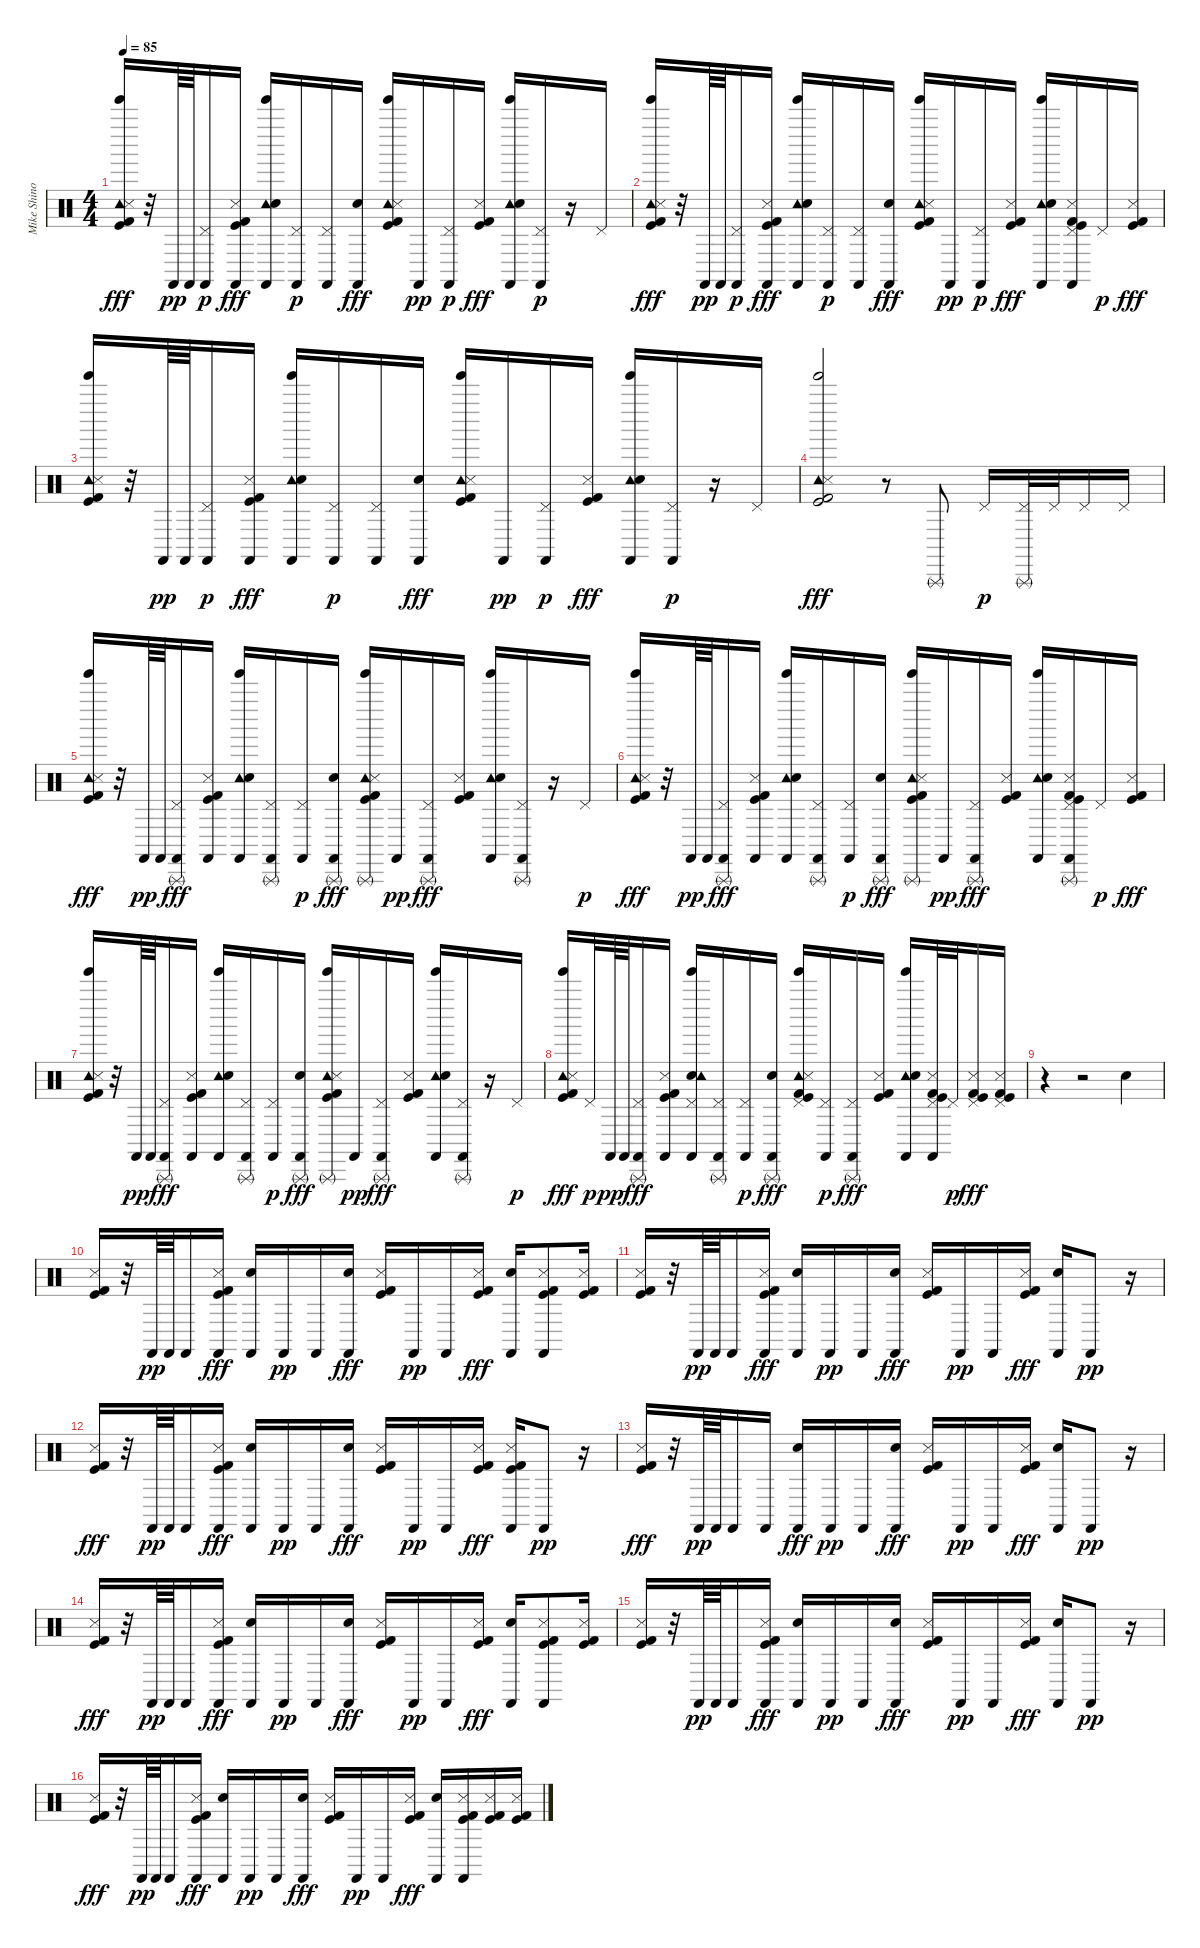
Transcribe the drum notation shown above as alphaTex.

\track ("Mike Shinoda - Percussion" "Mike Shino") {instrument percussion}
\staff {score}
\articulation defaults
\ts (4 4)
\tempo 85
\clef neutral
\ks c
("Tambourine (hit)" "Tinkle Bell (hit)" "Snare (side stick) 3" "Kick (hit)" "Kick (hit) 2").16{dy fff} r.32 "Castanets (hit)".64{dy pp} "Castanets (hit)".64 ("Castanets (hit)" "Pedal Hi-Hat (hit)").16{dy p} ("Castanets (hit)" "Snare (side stick) 3" "Kick (hit)" "Kick (hit) 2").16{dy fff} ("Castanets (hit)" "Tambourine (hit)" "Hand Clap (hit)" "Tinkle Bell (hit)").16 ("Castanets (hit)" "Pedal Hi-Hat (hit)").16{dy p} ("Castanets (hit)" "Pedal Hi-Hat (hit)").16 ("Castanets (hit)" "Hand Clap (hit)").16{dy fff} ("Tambourine (hit)" "Tinkle Bell (hit)" "Snare (side stick) 3" "Kick (hit)" "Kick (hit) 2").16 "Castanets (hit)".16{dy pp} ("Castanets (hit)" "Pedal Hi-Hat (hit)").16{dy p} ("Snare (side stick) 3" "Kick (hit)" "Kick (hit) 2").16{dy fff} ("Castanets (hit)" "Tambourine (hit)" "Hand Clap (hit)" "Tinkle Bell (hit)").16 ("Castanets (hit)" "Pedal Hi-Hat (hit)").16{dy p} r.16 "Pedal Hi-Hat (hit)".16 |
("Tambourine (hit)" "Tinkle Bell (hit)" "Snare (side stick) 3" "Kick (hit)" "Kick (hit) 2").16{dy fff} r.32 "Castanets (hit)".64{dy pp} "Castanets (hit)".64 ("Castanets (hit)" "Pedal Hi-Hat (hit)").16{dy p} ("Castanets (hit)" "Snare (side stick) 3" "Kick (hit)" "Kick (hit) 2").16{dy fff} ("Castanets (hit)" "Tambourine (hit)" "Hand Clap (hit)" "Tinkle Bell (hit)").16 ("Castanets (hit)" "Pedal Hi-Hat (hit)").16{dy p} ("Castanets (hit)" "Pedal Hi-Hat (hit)").16 ("Castanets (hit)" "Hand Clap (hit)").16{dy fff} ("Tambourine (hit)" "Tinkle Bell (hit)" "Snare (side stick) 3" "Kick (hit)" "Kick (hit) 2").16 "Castanets (hit)".16{dy pp} ("Castanets (hit)" "Pedal Hi-Hat (hit)").16{dy p} ("Snare (side stick) 3" "Kick (hit)" "Kick (hit) 2").16{dy fff} ("Castanets (hit)" "Tambourine (hit)" "Hand Clap (hit)" "Tinkle Bell (hit)").16 ("Castanets (hit)" "Pedal Hi-Hat (hit)" "Snare (side stick) 3" "Kick (hit)" "Kick (hit) 2").16 "Pedal Hi-Hat (hit)".16{dy p} ("Snare (side stick) 3" "Kick (hit)" "Kick (hit) 2").16{dy fff} |
("Tambourine (hit)" "Tinkle Bell (hit)" "Snare (side stick) 3" "Kick (hit)" "Kick (hit) 2").16 r.32 "Castanets (hit)".64{dy pp} "Castanets (hit)".64 ("Castanets (hit)" "Pedal Hi-Hat (hit)").16{dy p} ("Castanets (hit)" "Snare (side stick) 3" "Kick (hit)" "Kick (hit) 2").16{dy fff} ("Castanets (hit)" "Tambourine (hit)" "Hand Clap (hit)" "Tinkle Bell (hit)").16 ("Castanets (hit)" "Pedal Hi-Hat (hit)").16{dy p} ("Castanets (hit)" "Pedal Hi-Hat (hit)").16 ("Castanets (hit)" "Hand Clap (hit)").16{dy fff} ("Tambourine (hit)" "Tinkle Bell (hit)" "Snare (side stick) 3" "Kick (hit)" "Kick (hit) 2").16 "Castanets (hit)".16{dy pp} ("Castanets (hit)" "Pedal Hi-Hat (hit)").16{dy p} ("Snare (side stick) 3" "Kick (hit)" "Kick (hit) 2").16{dy fff} ("Castanets (hit)" "Tambourine (hit)" "Hand Clap (hit)" "Tinkle Bell (hit)").16 ("Castanets (hit)" "Pedal Hi-Hat (hit)").16{dy p} r.16 "Pedal Hi-Hat (hit)".16 |
("Tambourine (hit)" "Tinkle Bell (hit)" "Snare (side stick) 3" "Kick (hit)" "Kick (hit) 2").2{dy fff} r.8 "Triangle (rnute)".8 "Pedal Hi-Hat (hit)".16{dy p} ("Triangle (rnute)" "Pedal Hi-Hat (hit)").32 "Pedal Hi-Hat (hit)".32 "Pedal Hi-Hat (hit)".16 "Pedal Hi-Hat (hit)".16 |
("Tambourine (hit)" "Tinkle Bell (hit)" "Snare (side stick) 3" "Kick (hit)" "Kick (hit) 2").16{dy fff} r.32 "Castanets (hit)".64{dy pp} "Castanets (hit)".64 ("Castanets (hit)" "Pedal Hi-Hat (hit)" "Triangle (rnute)").16{dy fff} ("Castanets (hit)" "Snare (side stick) 3" "Kick (hit)" "Kick (hit) 2").16 ("Castanets (hit)" "Tambourine (hit)" "Hand Clap (hit)" "Tinkle Bell (hit)").16 ("Castanets (hit)" "Pedal Hi-Hat (hit)" "Triangle (rnute)").16 ("Castanets (hit)" "Pedal Hi-Hat (hit)").16{dy p} ("Castanets (hit)" "Triangle (rnute)" "Hand Clap (hit)").16{dy fff} ("Triangle (rnute)" "Tambourine (hit)" "Tinkle Bell (hit)" "Snare (side stick) 3" "Kick (hit)" "Kick (hit) 2").16 "Castanets (hit)".16{dy pp} ("Castanets (hit)" "Pedal Hi-Hat (hit)" "Triangle (rnute)").16{dy fff} ("Snare (side stick) 3" "Kick (hit)" "Kick (hit) 2").16 ("Castanets (hit)" "Tambourine (hit)" "Hand Clap (hit)" "Tinkle Bell (hit)").16 ("Castanets (hit)" "Pedal Hi-Hat (hit)" "Triangle (rnute)").16 r.16 "Pedal Hi-Hat (hit)".16{dy p} |
("Tambourine (hit)" "Tinkle Bell (hit)" "Snare (side stick) 3" "Kick (hit)" "Kick (hit) 2").16{dy fff} r.32 "Castanets (hit)".64{dy pp} "Castanets (hit)".64 ("Castanets (hit)" "Pedal Hi-Hat (hit)" "Triangle (rnute)").16{dy fff} ("Castanets (hit)" "Snare (side stick) 3" "Kick (hit)" "Kick (hit) 2").16 ("Castanets (hit)" "Tambourine (hit)" "Hand Clap (hit)" "Tinkle Bell (hit)").16 ("Castanets (hit)" "Pedal Hi-Hat (hit)" "Triangle (rnute)").16 ("Castanets (hit)" "Pedal Hi-Hat (hit)").16{dy p} ("Castanets (hit)" "Triangle (rnute)" "Hand Clap (hit)").16{dy fff} ("Triangle (rnute)" "Tambourine (hit)" "Tinkle Bell (hit)" "Snare (side stick) 3" "Kick (hit)" "Kick (hit) 2").16 "Castanets (hit)".16{dy pp} ("Castanets (hit)" "Pedal Hi-Hat (hit)" "Triangle (rnute)").16{dy fff} ("Snare (side stick) 3" "Kick (hit)" "Kick (hit) 2").16 ("Castanets (hit)" "Tambourine (hit)" "Hand Clap (hit)" "Tinkle Bell (hit)").16 ("Castanets (hit)" "Pedal Hi-Hat (hit)" "Triangle (rnute)" "Snare (side stick) 3" "Kick (hit)" "Kick (hit) 2").16 "Pedal Hi-Hat (hit)".16{dy p} ("Snare (side stick) 3" "Kick (hit)" "Kick (hit) 2").16{dy fff} |
("Tambourine (hit)" "Tinkle Bell (hit)" "Snare (side stick) 3" "Kick (hit)" "Kick (hit) 2").16 r.32 "Castanets (hit)".64{dy pp} "Castanets (hit)".64 ("Castanets (hit)" "Pedal Hi-Hat (hit)" "Triangle (rnute)").16{dy fff} ("Castanets (hit)" "Snare (side stick) 3" "Kick (hit)" "Kick (hit) 2").16 ("Castanets (hit)" "Tambourine (hit)" "Hand Clap (hit)" "Tinkle Bell (hit)").16 ("Castanets (hit)" "Pedal Hi-Hat (hit)" "Triangle (rnute)").16 ("Castanets (hit)" "Pedal Hi-Hat (hit)").16{dy p} ("Castanets (hit)" "Triangle (rnute)" "Hand Clap (hit)").16{dy fff} ("Triangle (rnute)" "Tambourine (hit)" "Tinkle Bell (hit)" "Snare (side stick) 3" "Kick (hit)" "Kick (hit) 2").16 "Castanets (hit)".16{dy pp} ("Castanets (hit)" "Pedal Hi-Hat (hit)" "Triangle (rnute)").16{dy fff} ("Snare (side stick) 3" "Kick (hit)" "Kick (hit) 2").16 ("Castanets (hit)" "Tambourine (hit)" "Hand Clap (hit)" "Tinkle Bell (hit)").16 ("Castanets (hit)" "Pedal Hi-Hat (hit)" "Triangle (rnute)").16 r.16 "Pedal Hi-Hat (hit)".16{dy p} |
("Tambourine (hit)" "Tinkle Bell (hit)" "Snare (side stick) 3" "Kick (hit)" "Kick (hit) 2").16{dy fff} "Pedal Hi-Hat (hit)".32{dy p} "Castanets (hit)".64{dy pp} "Castanets (hit)".64 ("Castanets (hit)" "Pedal Hi-Hat (hit)" "Triangle (rnute)").16{dy fff} ("Castanets (hit)" "Snare (side stick) 3" "Kick (hit)" "Kick (hit) 2").16 ("Castanets (hit)" "Pedal Hi-Hat (hit)" "Hand Clap (hit)" "Tambourine (hit)" "Tinkle Bell (hit)").16 ("Castanets (hit)" "Pedal Hi-Hat (hit)" "Triangle (rnute)").16 ("Castanets (hit)" "Pedal Hi-Hat (hit)").16{dy p} ("Castanets (hit)" "Triangle (rnute)" "Hand Clap (hit)").16{dy fff} ("Tambourine (hit)" "Pedal Hi-Hat (hit)" "Tinkle Bell (hit)" "Snare (side stick) 3" "Kick (hit)" "Kick (hit) 2").16 ("Castanets (hit)" "Pedal Hi-Hat (hit)").16{dy p} ("Castanets (hit)" "Pedal Hi-Hat (hit)" "Triangle (rnute)").16{dy fff} ("Snare (side stick) 3" "Kick (hit)" "Kick (hit) 2").16 ("Castanets (hit)" "Tambourine (hit)" "Hand Clap (hit)" "Tinkle Bell (hit)").16 ("Castanets (hit)" "Pedal Hi-Hat (hit)" "Snare (side stick) 3" "Kick (hit)" "Kick (hit) 2").32 "Pedal Hi-Hat (hit)".32{dy p} ("Pedal Hi-Hat (hit)" "Snare (side stick) 3" "Kick (hit)" "Kick (hit) 2").16{dy fff} ("Pedal Hi-Hat (hit)" "Snare (side stick) 3" "Kick (hit)" "Kick (hit) 2").16 |
r.4 r.2 "Hand Clap (hit)".4 |
("Snare (side stick) 3" "Kick (hit)" "Kick (hit) 2").16 r.32 "Castanets (hit)".64{dy pp} "Castanets (hit)".64 "Castanets (hit)".16 ("Castanets (hit)" "Snare (side stick) 3" "Kick (hit)" "Kick (hit) 2").16{dy fff} ("Castanets (hit)" "Hand Clap (hit)").16 "Castanets (hit)".16{dy pp} "Castanets (hit)".16 ("Castanets (hit)" "Hand Clap (hit)").16{dy fff} ("Snare (side stick) 3" "Kick (hit)" "Kick (hit) 2").16 "Castanets (hit)".16{dy pp} "Castanets (hit)".16 ("Snare (side stick) 3" "Kick (hit)" "Kick (hit) 2").16{dy fff} ("Castanets (hit)" "Hand Clap (hit)").16 ("Castanets (hit)" "Snare (side stick) 3" "Kick (hit)" "Kick (hit) 2").8 ("Snare (side stick) 3" "Kick (hit)" "Kick (hit) 2").16 |
("Snare (side stick) 3" "Kick (hit)" "Kick (hit) 2").16 r.32 "Castanets (hit)".64{dy pp} "Castanets (hit)".64 "Castanets (hit)".16 ("Castanets (hit)" "Snare (side stick) 3" "Kick (hit)" "Kick (hit) 2").16{dy fff} ("Castanets (hit)" "Hand Clap (hit)").16 "Castanets (hit)".16{dy pp} "Castanets (hit)".16 ("Castanets (hit)" "Hand Clap (hit)").16{dy fff} ("Snare (side stick) 3" "Kick (hit)" "Kick (hit) 2").16 "Castanets (hit)".16{dy pp} "Castanets (hit)".16 ("Snare (side stick) 3" "Kick (hit)" "Kick (hit) 2").16{dy fff} ("Castanets (hit)" "Hand Clap (hit)").16 "Castanets (hit)".8{dy pp} r.16 |
("Snare (side stick) 3" "Kick (hit)" "Kick (hit) 2").16{dy fff} r.32 "Castanets (hit)".64{dy pp} "Castanets (hit)".64 "Castanets (hit)".16 ("Castanets (hit)" "Snare (side stick) 3" "Kick (hit)" "Kick (hit) 2").16{dy fff} ("Castanets (hit)" "Hand Clap (hit)").16 "Castanets (hit)".16{dy pp} "Castanets (hit)".16 ("Castanets (hit)" "Hand Clap (hit)").16{dy fff} ("Snare (side stick) 3" "Kick (hit)" "Kick (hit) 2").16 "Castanets (hit)".16{dy pp} "Castanets (hit)".16 ("Snare (side stick) 3" "Kick (hit)" "Kick (hit) 2").16{dy fff} ("Castanets (hit)" "Snare (side stick) 3" "Kick (hit)" "Kick (hit) 2").16 "Castanets (hit)".8{dy pp} r.16 |
("Snare (side stick) 3" "Kick (hit)" "Kick (hit) 2").16{dy fff} r.32 "Castanets (hit)".64{dy pp} "Castanets (hit)".64 "Castanets (hit)".16 "Castanets (hit)".16 ("Castanets (hit)" "Hand Clap (hit)").16{dy fff} "Castanets (hit)".16{dy pp} "Castanets (hit)".16 ("Castanets (hit)" "Hand Clap (hit)").16{dy fff} ("Snare (side stick) 3" "Kick (hit)" "Kick (hit) 2").16 "Castanets (hit)".16{dy pp} "Castanets (hit)".16 ("Snare (side stick) 3" "Kick (hit)" "Kick (hit) 2").16{dy fff} ("Castanets (hit)" "Hand Clap (hit)").16 "Castanets (hit)".8{dy pp} r.16 |
("Snare (side stick) 3" "Kick (hit)" "Kick (hit) 2").16{dy fff} r.32 "Castanets (hit)".64{dy pp} "Castanets (hit)".64 "Castanets (hit)".16 ("Castanets (hit)" "Snare (side stick) 3" "Kick (hit)" "Kick (hit) 2").16{dy fff} ("Castanets (hit)" "Hand Clap (hit)").16 "Castanets (hit)".16{dy pp} "Castanets (hit)".16 ("Castanets (hit)" "Hand Clap (hit)").16{dy fff} ("Snare (side stick) 3" "Kick (hit)" "Kick (hit) 2").16 "Castanets (hit)".16{dy pp} "Castanets (hit)".16 ("Snare (side stick) 3" "Kick (hit)" "Kick (hit) 2").16{dy fff} ("Castanets (hit)" "Hand Clap (hit)").16 ("Castanets (hit)" "Snare (side stick) 3" "Kick (hit)" "Kick (hit) 2").8 ("Snare (side stick) 3" "Kick (hit)" "Kick (hit) 2").16 |
("Snare (side stick) 3" "Kick (hit)" "Kick (hit) 2").16 r.32 "Castanets (hit)".64{dy pp} "Castanets (hit)".64 "Castanets (hit)".16 ("Castanets (hit)" "Snare (side stick) 3" "Kick (hit)" "Kick (hit) 2").16{dy fff} ("Castanets (hit)" "Hand Clap (hit)").16 "Castanets (hit)".16{dy pp} "Castanets (hit)".16 ("Castanets (hit)" "Hand Clap (hit)").16{dy fff} ("Snare (side stick) 3" "Kick (hit)" "Kick (hit) 2").16 "Castanets (hit)".16{dy pp} "Castanets (hit)".16 ("Snare (side stick) 3" "Kick (hit)" "Kick (hit) 2").16{dy fff} ("Castanets (hit)" "Hand Clap (hit)").16 "Castanets (hit)".8{dy pp} r.16 |
("Snare (side stick) 3" "Kick (hit)" "Kick (hit) 2").16{dy fff} r.32 "Castanets (hit)".64{dy pp} "Castanets (hit)".64 "Castanets (hit)".16 ("Castanets (hit)" "Snare (side stick) 3" "Kick (hit)" "Kick (hit) 2").16{dy fff} ("Castanets (hit)" "Hand Clap (hit)").16 "Castanets (hit)".16{dy pp} "Castanets (hit)".16 ("Castanets (hit)" "Hand Clap (hit)").16{dy fff} ("Snare (side stick) 3" "Kick (hit)" "Kick (hit) 2").16 "Castanets (hit)".16{dy pp} "Castanets (hit)".16 ("Snare (side stick) 3" "Kick (hit)" "Kick (hit) 2").16{dy fff} ("Castanets (hit)" "Hand Clap (hit)").16 ("Castanets (hit)" "Snare (side stick) 3" "Kick (hit)" "Kick (hit) 2").16 ("Snare (side stick) 3" "Kick (hit)" "Kick (hit) 2").16 ("Snare (side stick) 3" "Kick (hit)" "Kick (hit) 2").16
